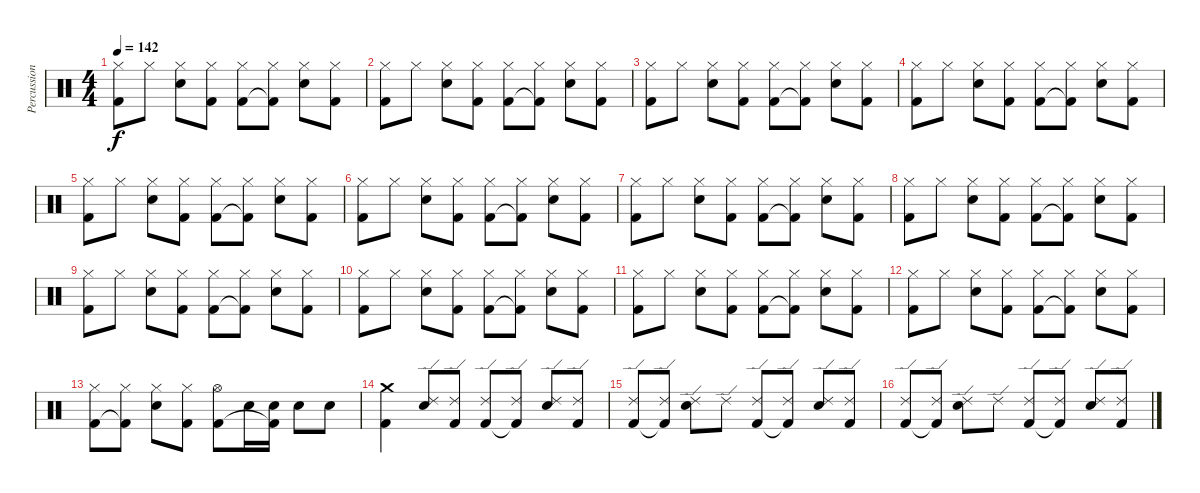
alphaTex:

\track ("Percussion" "Percussion") {instrument percussion}
\staff {score}
\articulation defaults
\ts (4 4)
\tempo 142
\clef neutral
\ks c
("Hi-Hat (closed)" "Kick (hit) 2").8{dy f} "Hi-Hat (closed)".8 ("Hi-Hat (closed)" "Snare (hit) 2").8 ("Hi-Hat (closed)" "Kick (hit) 2").8 ("Hi-Hat (closed)" "Kick (hit) 2").8 ("Hi-Hat (closed)" "Kick (hit) 2"{t}).8 ("Hi-Hat (closed)" "Snare (hit) 2").8 ("Hi-Hat (closed)" "Kick (hit) 2").8 |
("Hi-Hat (closed)" "Kick (hit) 2").8 "Hi-Hat (closed)".8 ("Hi-Hat (closed)" "Snare (hit) 2").8 ("Hi-Hat (closed)" "Kick (hit) 2").8 ("Hi-Hat (closed)" "Kick (hit) 2").8 ("Hi-Hat (closed)" "Kick (hit) 2"{t}).8 ("Hi-Hat (closed)" "Snare (hit) 2").8 ("Hi-Hat (closed)" "Kick (hit) 2").8 |
("Hi-Hat (closed)" "Kick (hit) 2").8 "Hi-Hat (closed)".8 ("Hi-Hat (closed)" "Snare (hit) 2").8 ("Hi-Hat (closed)" "Kick (hit) 2").8 ("Hi-Hat (closed)" "Kick (hit) 2").8 ("Hi-Hat (closed)" "Kick (hit) 2"{t}).8 ("Hi-Hat (closed)" "Snare (hit) 2").8 ("Hi-Hat (closed)" "Kick (hit) 2").8 |
("Hi-Hat (closed)" "Kick (hit) 2").8 "Hi-Hat (closed)".8 ("Hi-Hat (closed)" "Snare (hit) 2").8 ("Hi-Hat (closed)" "Kick (hit) 2").8 ("Hi-Hat (closed)" "Kick (hit) 2").8 ("Hi-Hat (closed)" "Kick (hit) 2"{t}).8 ("Hi-Hat (closed)" "Snare (hit) 2").8 ("Hi-Hat (closed)" "Kick (hit) 2").8 |
("Hi-Hat (closed)" "Kick (hit) 2").8 "Hi-Hat (closed)".8 ("Hi-Hat (closed)" "Snare (hit) 2").8 ("Hi-Hat (closed)" "Kick (hit) 2").8 ("Hi-Hat (closed)" "Kick (hit) 2").8 ("Hi-Hat (closed)" "Kick (hit) 2"{t}).8 ("Hi-Hat (closed)" "Snare (hit) 2").8 ("Hi-Hat (closed)" "Kick (hit) 2").8 |
("Hi-Hat (closed)" "Kick (hit) 2").8 "Hi-Hat (closed)".8 ("Hi-Hat (closed)" "Snare (hit) 2").8 ("Hi-Hat (closed)" "Kick (hit) 2").8 ("Hi-Hat (closed)" "Kick (hit) 2").8 ("Hi-Hat (closed)" "Kick (hit) 2"{t}).8 ("Hi-Hat (closed)" "Snare (hit) 2").8 ("Hi-Hat (closed)" "Kick (hit) 2").8 |
("Hi-Hat (closed)" "Kick (hit) 2").8 "Hi-Hat (closed)".8 ("Hi-Hat (closed)" "Snare (hit) 2").8 ("Hi-Hat (closed)" "Kick (hit) 2").8 ("Hi-Hat (closed)" "Kick (hit) 2").8 ("Hi-Hat (closed)" "Kick (hit) 2"{t}).8 ("Hi-Hat (closed)" "Snare (hit) 2").8 ("Hi-Hat (closed)" "Kick (hit) 2").8 |
("Hi-Hat (closed)" "Kick (hit) 2").8 "Hi-Hat (closed)".8 ("Hi-Hat (closed)" "Snare (hit) 2").8 ("Hi-Hat (closed)" "Kick (hit) 2").8 ("Hi-Hat (closed)" "Kick (hit) 2").8 ("Hi-Hat (closed)" "Kick (hit) 2"{t}).8 ("Hi-Hat (closed)" "Snare (hit) 2").8 ("Hi-Hat (closed)" "Kick (hit) 2").8 |
("Hi-Hat (closed)" "Kick (hit) 2").8 "Hi-Hat (closed)".8 ("Hi-Hat (closed)" "Snare (hit) 2").8 ("Hi-Hat (closed)" "Kick (hit) 2").8 ("Hi-Hat (closed)" "Kick (hit) 2").8 ("Hi-Hat (closed)" "Kick (hit) 2"{t}).8 ("Hi-Hat (closed)" "Snare (hit) 2").8 ("Hi-Hat (closed)" "Kick (hit) 2").8 |
("Hi-Hat (closed)" "Kick (hit) 2").8 "Hi-Hat (closed)".8 ("Hi-Hat (closed)" "Snare (hit) 2").8 ("Hi-Hat (closed)" "Kick (hit) 2").8 ("Hi-Hat (closed)" "Kick (hit) 2").8 ("Hi-Hat (closed)" "Kick (hit) 2"{t}).8 ("Hi-Hat (closed)" "Snare (hit) 2").8 ("Hi-Hat (closed)" "Kick (hit) 2").8 |
("Hi-Hat (closed)" "Kick (hit) 2").8 "Hi-Hat (closed)".8 ("Hi-Hat (closed)" "Snare (hit) 2").8 ("Hi-Hat (closed)" "Kick (hit) 2").8 ("Hi-Hat (closed)" "Kick (hit) 2").8 ("Hi-Hat (closed)" "Kick (hit) 2"{t}).8 ("Hi-Hat (closed)" "Snare (hit) 2").8 ("Hi-Hat (closed)" "Kick (hit) 2").8 |
("Hi-Hat (closed)" "Kick (hit) 2").8 "Hi-Hat (closed)".8 ("Hi-Hat (closed)" "Snare (hit) 2").8 ("Hi-Hat (closed)" "Kick (hit) 2").8 ("Hi-Hat (closed)" "Kick (hit) 2").8 ("Hi-Hat (closed)" "Kick (hit) 2"{t}).8 ("Hi-Hat (closed)" "Snare (hit) 2").8 ("Hi-Hat (closed)" "Kick (hit) 2").8 |
("Hi-Hat (closed)" "Kick (hit) 2").8 ("Hi-Hat (closed)" "Kick (hit) 2"{t}).8 ("Hi-Hat (closed)" "Snare (hit) 2").8 ("Hi-Hat (closed)" "Kick (hit) 2").8 ("Hi-Hat (open)" "Kick (hit) 2").8 "Snare (hit) 2".16 ("Snare (hit) 2" "Kick (hit) 2"{t}).16 "Snare (hit) 2".8 "Snare (hit) 2".8 |
("Crash medium (hit)" "Kick (hit) 2").4 ("Ride (edge) 2" "Snare (hit) 2").8 ("Ride (edge) 2" "Kick (hit) 2").8 ("Ride (edge) 2" "Kick (hit) 2").8 ("Ride (edge) 2" "Kick (hit) 2"{t}).8 ("Ride (edge) 2" "Snare (hit) 2").8 ("Ride (edge) 2" "Kick (hit) 2").8 |
("Ride (edge) 2" "Kick (hit) 2").8 ("Ride (edge) 2" "Kick (hit) 2"{t}).8 ("Ride (edge) 2" "Snare (hit) 2").8 "Ride (edge) 2".8 ("Ride (edge) 2" "Kick (hit) 2").8 ("Ride (edge) 2" "Kick (hit) 2"{t}).8 ("Ride (edge) 2" "Snare (hit) 2").8 ("Ride (edge) 2" "Kick (hit) 2").8 |
("Ride (edge) 2" "Kick (hit) 2").8 ("Ride (edge) 2" "Kick (hit) 2"{t}).8 ("Ride (edge) 2" "Snare (hit) 2").8 "Ride (edge) 2".8 ("Ride (edge) 2" "Kick (hit) 2").8 ("Ride (edge) 2" "Kick (hit) 2"{t}).8 ("Ride (edge) 2" "Snare (hit) 2").8 ("Ride (edge) 2" "Kick (hit) 2").8
